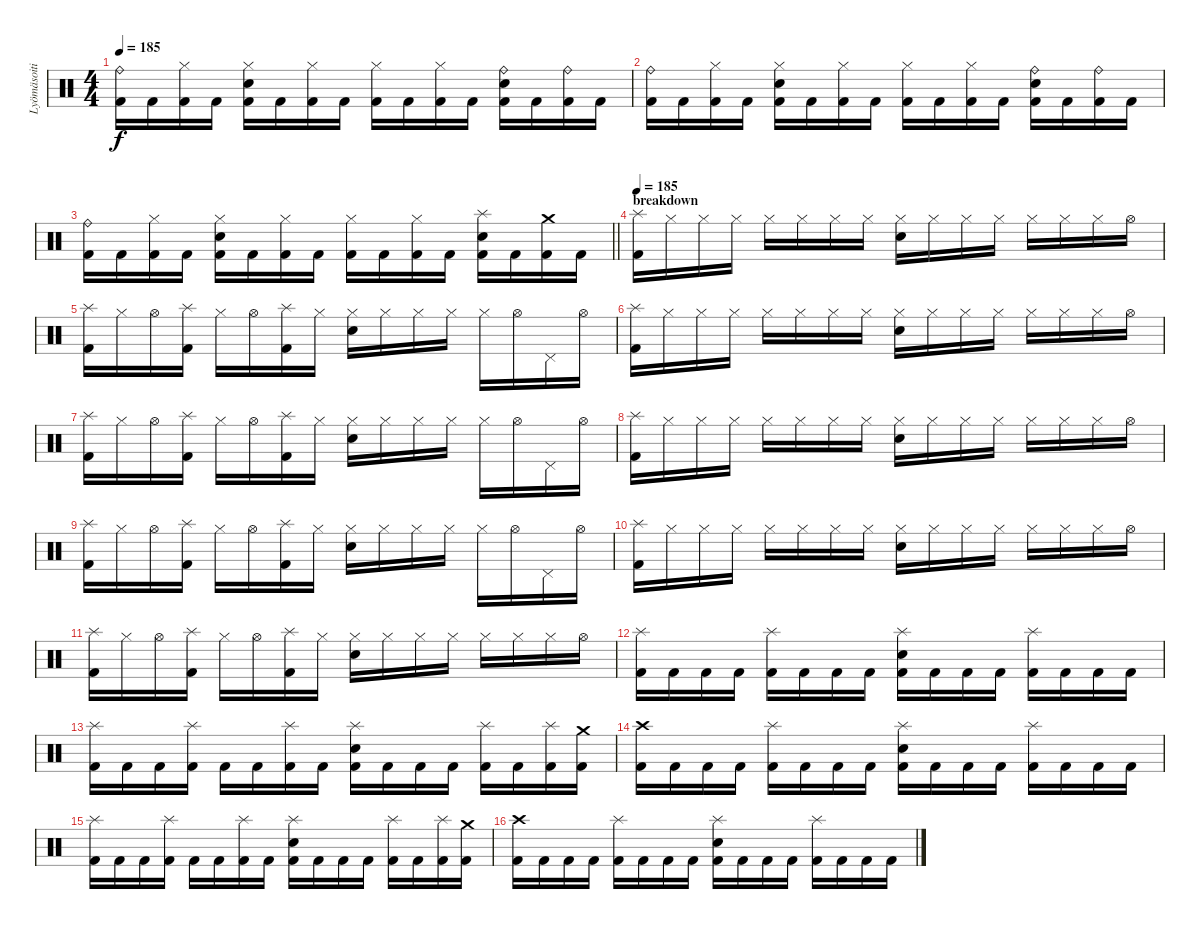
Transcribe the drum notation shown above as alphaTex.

\track ("Lyömäsoitin" "Lyömäsoiti") {instrument percussion}
\staff {score}
\articulation defaults
\ts (4 4)
\tempo 185
\clef neutral
\ks c
("Ride (bell)" "Kick (hit) 2").16{dy f} "Kick (hit) 2".16 ("Hi-Hat (closed)" "Kick (hit) 2").16 "Kick (hit) 2".16 ("Hi-Hat (closed)" "Electric Snare (hit)" "Kick (hit) 2").16 "Kick (hit) 2".16 ("Hi-Hat (closed)" "Kick (hit) 2").16 "Kick (hit) 2".16 ("Hi-Hat (closed)" "Kick (hit) 2").16 "Kick (hit) 2".16 ("Hi-Hat (closed)" "Kick (hit) 2").16 "Kick (hit) 2".16 ("Ride (bell)" "Electric Snare (hit)" "Kick (hit) 2").16 "Kick (hit) 2".16 ("Ride (bell)" "Kick (hit) 2").16 "Kick (hit) 2".16 |
("Ride (bell)" "Kick (hit) 2").16 "Kick (hit) 2".16 ("Hi-Hat (closed)" "Kick (hit) 2").16 "Kick (hit) 2".16 ("Hi-Hat (closed)" "Electric Snare (hit)" "Kick (hit) 2").16 "Kick (hit) 2".16 ("Hi-Hat (closed)" "Kick (hit) 2").16 "Kick (hit) 2".16 ("Hi-Hat (closed)" "Kick (hit) 2").16 "Kick (hit) 2".16 ("Hi-Hat (closed)" "Kick (hit) 2").16 "Kick (hit) 2".16 ("Ride (bell)" "Electric Snare (hit)" "Kick (hit) 2").16 "Kick (hit) 2".16 ("Ride (bell)" "Kick (hit) 2").16 "Kick (hit) 2".16 |
\barLineRight lightlight
("Ride (bell)" "Kick (hit) 2").16 "Kick (hit) 2".16 ("Hi-Hat (closed)" "Kick (hit) 2").16 "Kick (hit) 2".16 ("Hi-Hat (closed)" "Electric Snare (hit)" "Kick (hit) 2").16 "Kick (hit) 2".16 ("Hi-Hat (closed)" "Kick (hit) 2").16 "Kick (hit) 2".16 ("Hi-Hat (closed)" "Kick (hit) 2").16 "Kick (hit) 2".16 ("Hi-Hat (closed)" "Kick (hit) 2").16 "Kick (hit) 2".16 ("Splash (hit)" "Electric Snare (hit)" "Kick (hit) 2").16 "Kick (hit) 2".16 ("Crash medium (hit)" "Kick (hit) 2").16 "Kick (hit) 2".16 |
\section ("" "breakdown")
\tempo 185
("Splash (hit)" "Kick (hit) 2").16 "Hi-Hat (closed)".16 "Hi-Hat (closed)".16 "Hi-Hat (closed)".16 "Hi-Hat (closed)".16 "Hi-Hat (closed)".16 "Hi-Hat (closed)".16 "Hi-Hat (closed)".16 ("Hi-Hat (closed)" "Electric Snare (hit)").16 "Hi-Hat (closed)".16 "Hi-Hat (closed)".16 "Hi-Hat (closed)".16 "Hi-Hat (closed)".16 "Hi-Hat (closed)".16 "Hi-Hat (closed)".16 "Hi-Hat (open)".16 |
("Splash (hit)" "Kick (hit) 2").16 "Hi-Hat (closed)".16 "Hi-Hat (open)".16 ("Splash (hit)" "Kick (hit) 2").16 "Hi-Hat (closed)".16 "Hi-Hat (open)".16 ("Splash (hit)" "Kick (hit) 2").16 "Hi-Hat (closed)".16 ("Hi-Hat (closed)" "Electric Snare (hit)").16 "Hi-Hat (closed)".16 "Hi-Hat (closed)".16 "Hi-Hat (closed)".16 "Hi-Hat (closed)".16 "Hi-Hat (open)".16 "Pedal Hi-Hat (hit)".16 "Hi-Hat (open)".16 |
("Splash (hit)" "Kick (hit) 2").16 "Hi-Hat (closed)".16 "Hi-Hat (closed)".16 "Hi-Hat (closed)".16 "Hi-Hat (closed)".16 "Hi-Hat (closed)".16 "Hi-Hat (closed)".16 "Hi-Hat (closed)".16 ("Hi-Hat (closed)" "Electric Snare (hit)").16 "Hi-Hat (closed)".16 "Hi-Hat (closed)".16 "Hi-Hat (closed)".16 "Hi-Hat (closed)".16 "Hi-Hat (closed)".16 "Hi-Hat (closed)".16 "Hi-Hat (open)".16 |
("Splash (hit)" "Kick (hit) 2").16 "Hi-Hat (closed)".16 "Hi-Hat (open)".16 ("Splash (hit)" "Kick (hit) 2").16 "Hi-Hat (closed)".16 "Hi-Hat (open)".16 ("Splash (hit)" "Kick (hit) 2").16 "Hi-Hat (closed)".16 ("Hi-Hat (closed)" "Electric Snare (hit)").16 "Hi-Hat (closed)".16 "Hi-Hat (closed)".16 "Hi-Hat (closed)".16 "Hi-Hat (closed)".16 "Hi-Hat (open)".16 "Pedal Hi-Hat (hit)".16 "Hi-Hat (open)".16 |
("Splash (hit)" "Kick (hit) 2").16 "Hi-Hat (closed)".16 "Hi-Hat (closed)".16 "Hi-Hat (closed)".16 "Hi-Hat (closed)".16 "Hi-Hat (closed)".16 "Hi-Hat (closed)".16 "Hi-Hat (closed)".16 ("Hi-Hat (closed)" "Electric Snare (hit)").16 "Hi-Hat (closed)".16 "Hi-Hat (closed)".16 "Hi-Hat (closed)".16 "Hi-Hat (closed)".16 "Hi-Hat (closed)".16 "Hi-Hat (closed)".16 "Hi-Hat (open)".16 |
("Splash (hit)" "Kick (hit) 2").16 "Hi-Hat (closed)".16 "Hi-Hat (open)".16 ("Splash (hit)" "Kick (hit) 2").16 "Hi-Hat (closed)".16 "Hi-Hat (open)".16 ("Splash (hit)" "Kick (hit) 2").16 "Hi-Hat (closed)".16 ("Hi-Hat (closed)" "Electric Snare (hit)").16 "Hi-Hat (closed)".16 "Hi-Hat (closed)".16 "Hi-Hat (closed)".16 "Hi-Hat (closed)".16 "Hi-Hat (open)".16 "Pedal Hi-Hat (hit)".16 "Hi-Hat (open)".16 |
("Splash (hit)" "Kick (hit) 2").16 "Hi-Hat (closed)".16 "Hi-Hat (closed)".16 "Hi-Hat (closed)".16 "Hi-Hat (closed)".16 "Hi-Hat (closed)".16 "Hi-Hat (closed)".16 "Hi-Hat (closed)".16 ("Hi-Hat (closed)" "Electric Snare (hit)").16 "Hi-Hat (closed)".16 "Hi-Hat (closed)".16 "Hi-Hat (closed)".16 "Hi-Hat (closed)".16 "Hi-Hat (closed)".16 "Hi-Hat (closed)".16 "Hi-Hat (open)".16 |
("Splash (hit)" "Kick (hit) 2").16 "Hi-Hat (closed)".16 "Hi-Hat (open)".16 ("Splash (hit)" "Kick (hit) 2").16 "Hi-Hat (closed)".16 "Hi-Hat (open)".16 ("Splash (hit)" "Kick (hit) 2").16 "Hi-Hat (closed)".16 ("Hi-Hat (closed)" "Electric Snare (hit)").16 "Hi-Hat (closed)".16 "Hi-Hat (closed)".16 "Hi-Hat (closed)".16 "Hi-Hat (closed)".16 "Hi-Hat (closed)".16 "Hi-Hat (closed)".16 "Hi-Hat (open)".16 |
("Splash (hit)" "Kick (hit) 2").16 "Kick (hit) 2".16 "Kick (hit) 2".16 "Kick (hit) 2".16 ("Splash (hit)" "Kick (hit) 2").16 "Kick (hit) 2".16 "Kick (hit) 2".16 "Kick (hit) 2".16 ("Splash (hit)" "Electric Snare (hit)" "Kick (hit) 2").16 "Kick (hit) 2".16 "Kick (hit) 2".16 "Kick (hit) 2".16 ("Splash (hit)" "Kick (hit) 2").16 "Kick (hit) 2".16 "Kick (hit) 2".16 "Kick (hit) 2".16 |
("Splash (hit)" "Kick (hit) 2").16 "Kick (hit) 2".16 "Kick (hit) 2".16 ("Splash (hit)" "Kick (hit) 2").16 "Kick (hit) 2".16 "Kick (hit) 2".16 ("Splash (hit)" "Kick (hit) 2").16 "Kick (hit) 2".16 ("Splash (hit)" "Electric Snare (hit)" "Kick (hit) 2").16 "Kick (hit) 2".16 "Kick (hit) 2".16 "Kick (hit) 2".16 ("Splash (hit)" "Kick (hit) 2").16 "Kick (hit) 2".16 ("Splash (hit)" "Kick (hit) 2").16 ("Crash medium (hit)" "Kick (hit) 2").16 |
("Crash high (hit)" "Kick (hit) 2").16 "Kick (hit) 2".16 "Kick (hit) 2".16 "Kick (hit) 2".16 ("Splash (hit)" "Kick (hit) 2").16 "Kick (hit) 2".16 "Kick (hit) 2".16 "Kick (hit) 2".16 ("Splash (hit)" "Electric Snare (hit)" "Kick (hit) 2").16 "Kick (hit) 2".16 "Kick (hit) 2".16 "Kick (hit) 2".16 ("Splash (hit)" "Kick (hit) 2").16 "Kick (hit) 2".16 "Kick (hit) 2".16 "Kick (hit) 2".16 |
("Splash (hit)" "Kick (hit) 2").16 "Kick (hit) 2".16 "Kick (hit) 2".16 ("Splash (hit)" "Kick (hit) 2").16 "Kick (hit) 2".16 "Kick (hit) 2".16 ("Splash (hit)" "Kick (hit) 2").16 "Kick (hit) 2".16 ("Splash (hit)" "Electric Snare (hit)" "Kick (hit) 2").16 "Kick (hit) 2".16 "Kick (hit) 2".16 "Kick (hit) 2".16 ("Splash (hit)" "Kick (hit) 2").16 "Kick (hit) 2".16 ("Splash (hit)" "Kick (hit) 2").16 ("Crash medium (hit)" "Kick (hit) 2").16 |
("Crash high (hit)" "Kick (hit) 2").16 "Kick (hit) 2".16 "Kick (hit) 2".16 "Kick (hit) 2".16 ("Splash (hit)" "Kick (hit) 2").16 "Kick (hit) 2".16 "Kick (hit) 2".16 "Kick (hit) 2".16 ("Splash (hit)" "Electric Snare (hit)" "Kick (hit) 2").16 "Kick (hit) 2".16 "Kick (hit) 2".16 "Kick (hit) 2".16 ("Splash (hit)" "Kick (hit) 2").16 "Kick (hit) 2".16 "Kick (hit) 2".16 "Kick (hit) 2".16
